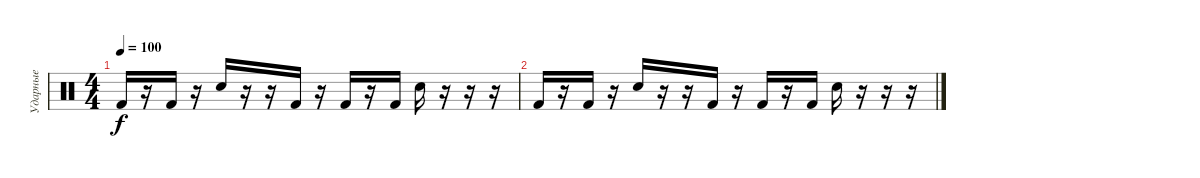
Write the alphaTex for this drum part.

\track ("Ударные" "Ударные") {instrument percussion}
\staff {score}
\articulation defaults
\ts (4 4)
\tempo 100
\clef neutral
\ks c "Kick (hit) 2".16{dy f}
r.16 "Kick (hit) 2".16 r.16 "Electric Snare (hit)".16 r.16 r.16 "Kick (hit) 2".16 r.16 "Kick (hit) 2".16 r.16 "Kick (hit) 2".16 "Electric Snare (hit)".16 r.16 r.16 r.16 |
"Kick (hit) 2".16 r.16 "Kick (hit) 2".16 r.16 "Electric Snare (hit)".16 r.16 r.16 "Kick (hit) 2".16 r.16 "Kick (hit) 2".16 r.16 "Kick (hit) 2".16 "Electric Snare (hit)".16 r.16 r.16 r.16
